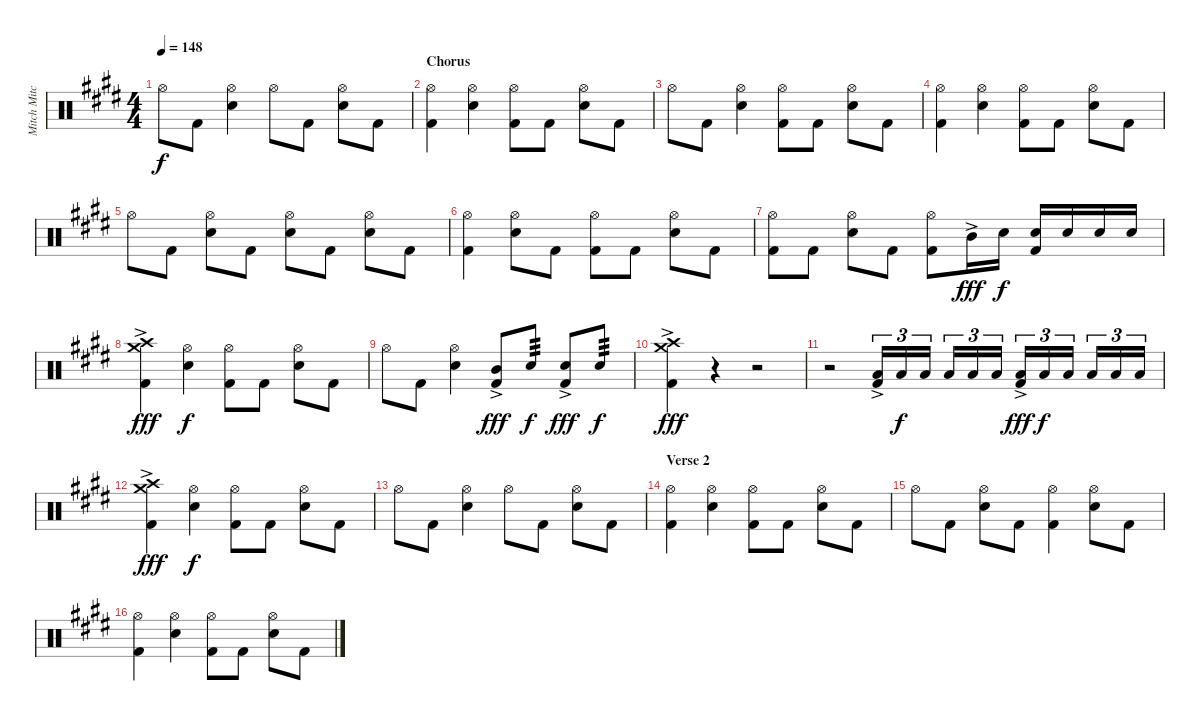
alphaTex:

\track ("Mitch Mitchell" "Mitch Mitc") {instrument percussion}
\staff {score}
\articulation defaults
\ts (4 4)
\tempo 148
\clef neutral
\ks e "Hi-Hat (open)".8{dy f} "Kick (hit) 2".8
("Hi-Hat (open)" "Snare (hit) 2").4 "Hi-Hat (open)".8 "Kick (hit) 2".8 ("Hi-Hat (open)" "Snare (hit) 2").8 "Kick (hit) 2".8 |
\section ("" "Chorus")
("Hi-Hat (open)" "Kick (hit) 2").4 ("Hi-Hat (open)" "Snare (hit) 2").4 ("Hi-Hat (open)" "Kick (hit) 2").8 "Kick (hit) 2".8 ("Hi-Hat (open)" "Snare (hit) 2").8 "Kick (hit) 2".8 |
"Hi-Hat (open)".8 "Kick (hit) 2".8 ("Hi-Hat (open)" "Snare (hit) 2").4 ("Hi-Hat (open)" "Kick (hit) 2").8 "Kick (hit) 2".8 ("Hi-Hat (open)" "Snare (hit) 2").8 "Kick (hit) 2".8 |
("Hi-Hat (open)" "Kick (hit) 2").4 ("Hi-Hat (open)" "Snare (hit) 2").4 ("Hi-Hat (open)" "Kick (hit) 2").8 "Kick (hit) 2".8 ("Hi-Hat (open)" "Snare (hit) 2").8 "Kick (hit) 2".8 |
"Hi-Hat (open)".8 "Kick (hit) 2".8 ("Hi-Hat (open)" "Snare (hit) 2").8 "Kick (hit) 2".8 ("Hi-Hat (open)" "Snare (hit) 2").8 "Kick (hit) 2".8 ("Hi-Hat (open)" "Snare (hit) 2").8 "Kick (hit) 2".8 |
("Hi-Hat (open)" "Kick (hit) 2").4 ("Hi-Hat (open)" "Snare (hit) 2").8 "Kick (hit) 2".8 ("Hi-Hat (open)" "Kick (hit) 2").8 "Kick (hit) 2".8 ("Hi-Hat (open)" "Snare (hit) 2").8 "Kick (hit) 2".8 |
("Hi-Hat (open)" "Kick (hit) 2").8 "Kick (hit) 2".8 ("Hi-Hat (open)" "Snare (hit) 2").8 "Kick (hit) 2".8 ("Hi-Hat (open)" "Kick (hit) 2").8 "Mid Tom (hit)"{ac}.16{dy fff} "Snare (hit) 2".16{dy f} ("Snare (hit) 2" "Kick (hit) 2").16 "Snare (hit) 2".16 "Snare (hit) 2".16 "Snare (hit) 2".16 |
("Crash high (hit)"{ac} "Crash medium (hit)"{ac} "Kick (hit) 2"{ac}).4{dy fff} ("Hi-Hat (open)" "Snare (hit) 2").4{dy f} ("Hi-Hat (open)" "Kick (hit) 2").8 "Kick (hit) 2".8 ("Hi-Hat (open)" "Snare (hit) 2").8 "Kick (hit) 2".8 |
"Hi-Hat (open)".8 "Kick (hit) 2".8 ("Hi-Hat (open)" "Snare (hit) 2").4 ("Mid Tom (hit)"{ac} "Kick (hit) 2"{ac}).8{dy fff} "Snare (hit) 2".8{tp 3 dy f} ("Snare (hit) 2"{ac} "Kick (hit) 2"{ac}).8{dy fff} "Snare (hit) 2".8{tp 3 dy f} |
("Crash high (hit)"{ac} "Crash medium (hit)"{ac} "Kick (hit) 2"{ac}).4{dy fff} r.4 r.2 |
r.2 ("Low Tom (hit)"{ac} "Kick (hit) 2"{ac}).16{tu (3 2)} "Low Tom (hit)".16{tu (3 2) dy f} "Low Tom (hit)".16{tu (3 2)} "Low Tom (hit)".16{tu (3 2)} "Low Tom (hit)".16{tu (3 2)} "Low Tom (hit)".16{tu (3 2)} ("Low Tom (hit)"{ac} "Kick (hit) 2"{ac}).16{tu (3 2) dy fff} "Low Tom (hit)".16{tu (3 2) dy f} "Low Tom (hit)".16{tu (3 2)} "Low Tom (hit)".16{tu (3 2)} "Low Tom (hit)".16{tu (3 2)} "Low Tom (hit)".16{tu (3 2)} |
("Crash high (hit)"{ac} "Crash medium (hit)" "Kick (hit) 2"{ac}).4{dy fff} ("Hi-Hat (open)" "Snare (hit) 2").4{dy f} ("Hi-Hat (open)" "Kick (hit) 2").8 "Kick (hit) 2".8 ("Hi-Hat (open)" "Snare (hit) 2").8 "Kick (hit) 2".8 |
"Hi-Hat (open)".8 "Kick (hit) 2".8 ("Hi-Hat (open)" "Snare (hit) 2").4 "Hi-Hat (open)".8 "Kick (hit) 2".8 ("Hi-Hat (open)" "Snare (hit) 2").8 "Kick (hit) 2".8 |
\section ("" "Verse 2")
("Hi-Hat (open)" "Kick (hit) 2").4 ("Hi-Hat (open)" "Snare (hit) 2").4 ("Hi-Hat (open)" "Kick (hit) 2").8 "Kick (hit) 2".8 ("Hi-Hat (open)" "Snare (hit) 2").8 "Kick (hit) 2".8 |
"Hi-Hat (open)".8 "Kick (hit) 2".8 ("Hi-Hat (open)" "Snare (hit) 2").8 "Kick (hit) 2".8 ("Hi-Hat (open)" "Kick (hit) 2").4 ("Hi-Hat (open)" "Snare (hit) 2").8 "Kick (hit) 2".8 |
("Hi-Hat (open)" "Kick (hit) 2").4 ("Hi-Hat (open)" "Snare (hit) 2").4 ("Hi-Hat (open)" "Kick (hit) 2").8 "Kick (hit) 2".8 ("Hi-Hat (open)" "Snare (hit) 2").8 "Kick (hit) 2".8
